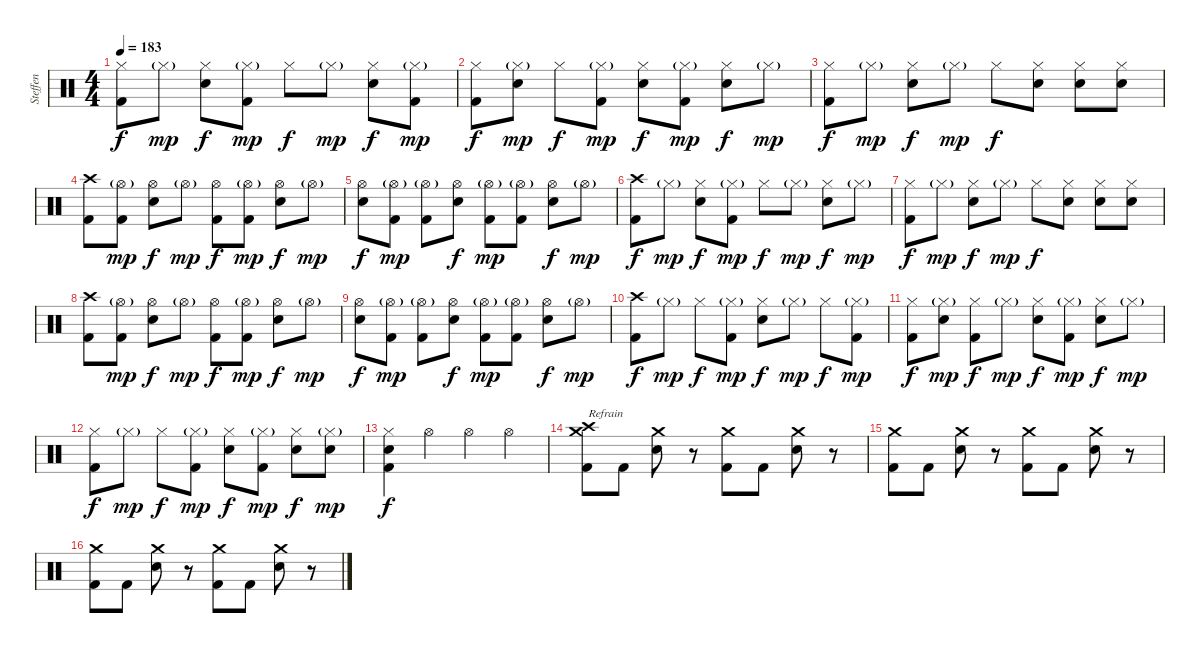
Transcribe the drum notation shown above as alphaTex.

\track ("Steffen" "Steffen") {instrument percussion}
\staff {score}
\articulation defaults
\ts (4 4)
\tempo 183
\clef neutral
\ks c
("Hi-Hat (closed)" "Kick (hit) 2").8{dy f} "Hi-Hat (closed)"{g}.8{dy mp} ("Hi-Hat (closed)" "Electric Snare (hit)").8{dy f} ("Hi-Hat (closed)"{g} "Kick (hit) 2").8{dy mp} "Hi-Hat (closed)".8{dy f} "Hi-Hat (closed)"{g}.8{dy mp} ("Hi-Hat (closed)" "Electric Snare (hit)").8{dy f} ("Hi-Hat (closed)"{g} "Kick (hit) 2").8{dy mp} |
("Hi-Hat (closed)" "Kick (hit) 2").8{dy f} ("Hi-Hat (closed)"{g} "Electric Snare (hit)").8{dy mp} "Hi-Hat (closed)".8{dy f} ("Hi-Hat (closed)"{g} "Kick (hit) 2").8{dy mp} ("Hi-Hat (closed)" "Electric Snare (hit)").8{dy f} ("Hi-Hat (closed)"{g} "Kick (hit) 2").8{dy mp} ("Hi-Hat (closed)" "Electric Snare (hit)").8{dy f} "Hi-Hat (closed)"{g}.8{dy mp} |
("Hi-Hat (closed)" "Kick (hit) 2").8{dy f} "Hi-Hat (closed)"{g}.8{dy mp} ("Hi-Hat (closed)" "Electric Snare (hit)").8{dy f} "Hi-Hat (closed)"{g}.8{dy mp} "Hi-Hat (closed)".8{dy f} ("Hi-Hat (closed)" "Electric Snare (hit)").8 ("Hi-Hat (closed)" "Electric Snare (hit)").8 ("Hi-Hat (closed)" "Electric Snare (hit)").8 |
("Crash high (hit)" "Kick (hit) 2").8 ("Hi-Hat (open)"{g} "Kick (hit) 2").8{dy mp} ("Hi-Hat (open)" "Electric Snare (hit)").8{dy f} "Hi-Hat (open)"{g}.8{dy mp} ("Hi-Hat (open)" "Kick (hit) 2").8{dy f} ("Hi-Hat (open)"{g} "Kick (hit) 2").8{dy mp} ("Hi-Hat (open)" "Electric Snare (hit)").8{dy f} "Hi-Hat (open)"{g}.8{dy mp} |
("Hi-Hat (open)" "Electric Snare (hit)").8{dy f} ("Hi-Hat (open)"{g} "Kick (hit) 2").8{dy mp} ("Hi-Hat (open)"{g} "Kick (hit) 2").8 ("Hi-Hat (open)" "Electric Snare (hit)").8{dy f} ("Hi-Hat (open)"{g} "Kick (hit) 2").8{dy mp} ("Hi-Hat (open)"{g} "Kick (hit) 2").8 ("Hi-Hat (open)" "Electric Snare (hit)").8{dy f} "Hi-Hat (open)"{g}.8{dy mp} |
("Crash high (hit)" "Kick (hit) 2").8{dy f} "Hi-Hat (closed)"{g}.8{dy mp} ("Hi-Hat (closed)" "Electric Snare (hit)").8{dy f} ("Hi-Hat (closed)"{g} "Kick (hit) 2").8{dy mp} "Hi-Hat (closed)".8{dy f} "Hi-Hat (closed)"{g}.8{dy mp} ("Hi-Hat (closed)" "Electric Snare (hit)").8{dy f} "Hi-Hat (closed)"{g}.8{dy mp} |
("Hi-Hat (closed)" "Kick (hit) 2").8{dy f} "Hi-Hat (closed)"{g}.8{dy mp} ("Hi-Hat (closed)" "Electric Snare (hit)").8{dy f} "Hi-Hat (closed)"{g}.8{dy mp} "Hi-Hat (closed)".8{dy f} ("Hi-Hat (closed)" "Electric Snare (hit)").8 ("Hi-Hat (closed)" "Electric Snare (hit)").8 ("Hi-Hat (closed)" "Electric Snare (hit)").8 |
("Crash high (hit)" "Kick (hit) 2").8 ("Hi-Hat (open)"{g} "Kick (hit) 2").8{dy mp} ("Hi-Hat (open)" "Electric Snare (hit)").8{dy f} "Hi-Hat (open)"{g}.8{dy mp} ("Hi-Hat (open)" "Kick (hit) 2").8{dy f} ("Hi-Hat (open)"{g} "Kick (hit) 2").8{dy mp} ("Hi-Hat (open)" "Electric Snare (hit)").8{dy f} "Hi-Hat (open)"{g}.8{dy mp} |
("Hi-Hat (open)" "Electric Snare (hit)").8{dy f} ("Hi-Hat (open)"{g} "Kick (hit) 2").8{dy mp} ("Hi-Hat (open)"{g} "Kick (hit) 2").8 ("Hi-Hat (open)" "Electric Snare (hit)").8{dy f} ("Hi-Hat (open)"{g} "Kick (hit) 2").8{dy mp} ("Hi-Hat (open)"{g} "Kick (hit) 2").8 ("Hi-Hat (open)" "Electric Snare (hit)").8{dy f} "Hi-Hat (open)"{g}.8{dy mp} |
("Crash high (hit)" "Kick (hit) 2").8{dy f} "Hi-Hat (closed)"{g}.8{dy mp} "Hi-Hat (closed)".8{dy f} ("Hi-Hat (closed)"{g} "Kick (hit) 2").8{dy mp} ("Hi-Hat (closed)" "Electric Snare (hit)").8{dy f} "Hi-Hat (closed)"{g}.8{dy mp} "Hi-Hat (closed)".8{dy f} ("Hi-Hat (closed)"{g} "Kick (hit) 2").8{dy mp} |
("Hi-Hat (closed)" "Kick (hit) 2").8{dy f} ("Hi-Hat (closed)"{g} "Electric Snare (hit)").8{dy mp} ("Hi-Hat (closed)" "Kick (hit) 2").8{dy f} "Hi-Hat (closed)"{g}.8{dy mp} ("Hi-Hat (closed)" "Electric Snare (hit)").8{dy f} ("Hi-Hat (closed)"{g} "Kick (hit) 2").8{dy mp} ("Hi-Hat (closed)" "Electric Snare (hit)").8{dy f} "Hi-Hat (closed)"{g}.8{dy mp} |
("Hi-Hat (closed)" "Kick (hit) 2").8{dy f} "Hi-Hat (closed)"{g}.8{dy mp} "Hi-Hat (closed)".8{dy f} ("Hi-Hat (closed)"{g} "Kick (hit) 2").8{dy mp} ("Hi-Hat (closed)" "Electric Snare (hit)").8{dy f} ("Hi-Hat (closed)"{g} "Kick (hit) 2").8{dy mp} ("Hi-Hat (closed)" "Electric Snare (hit)").8{dy f} ("Hi-Hat (closed)"{g} "Electric Snare (hit)").8{dy mp} |
("Hi-Hat (closed)" "Electric Snare (hit)" "Kick (hit) 2").4{dy f} "Hi-Hat (open)".4 "Hi-Hat (open)".4 "Hi-Hat (open)".4 |
("Crash high (hit)" "Crash medium (hit)" "Kick (hit) 2").8{txt "Refrain"} "Kick (hit) 2".8 ("Crash medium (hit)" "Snare (hit) 2").8 r.8 ("Crash medium (hit)" "Kick (hit) 2").8 "Kick (hit) 2".8 ("Crash medium (hit)" "Snare (hit) 2").8 r.8 |
("Crash medium (hit)" "Kick (hit) 2").8 "Kick (hit) 2".8 ("Crash medium (hit)" "Snare (hit) 2").8 r.8 ("Crash medium (hit)" "Kick (hit) 2").8 "Kick (hit) 2".8 ("Crash medium (hit)" "Snare (hit) 2").8 r.8 |
("Crash medium (hit)" "Kick (hit) 2").8 "Kick (hit) 2".8 ("Crash medium (hit)" "Snare (hit) 2").8 r.8 ("Crash medium (hit)" "Kick (hit) 2").8 "Kick (hit) 2".8 ("Crash medium (hit)" "Snare (hit) 2").8 r.8
